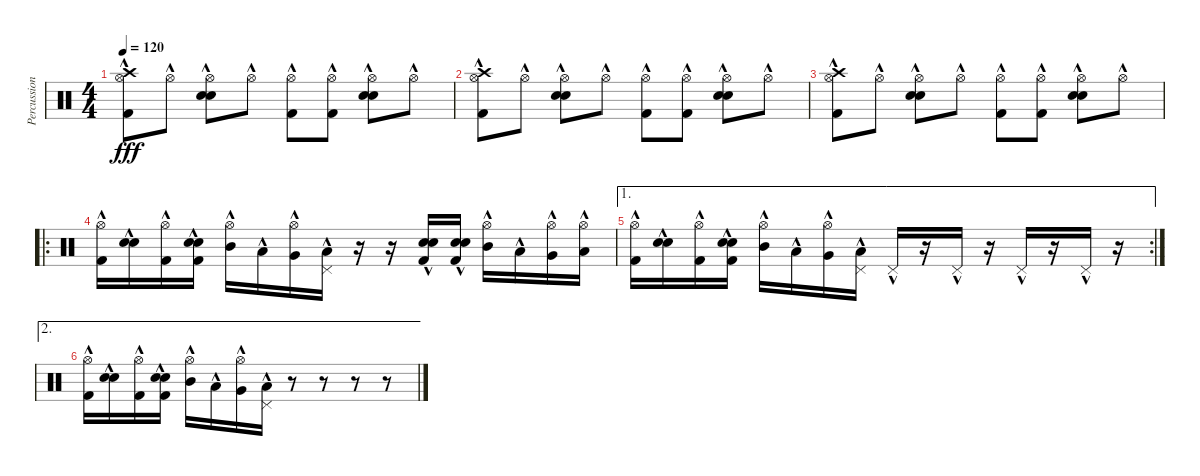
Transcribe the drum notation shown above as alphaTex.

\track ("Percussion" "Percussion") {instrument percussion}
\staff {score}
\articulation defaults
\ts (4 4)
\tempo 120
\clef neutral
\ks c
("Crash high (hit)"{hac} "Hi-Hat (open)"{hac} "Kick (hit) 2"{hac}).8{dy fff} "Hi-Hat (open)"{hac}.8 ("Electric Snare (hit)"{hac} "Snare (hit) 2"{hac} "Hi-Hat (open)"{hac}).8 "Hi-Hat (open)"{hac}.8 ("Hi-Hat (open)"{hac} "Kick (hit) 2"{hac}).8 ("Hi-Hat (open)"{hac} "Kick (hit) 2"{hac}).8 ("Electric Snare (hit)"{hac} "Snare (hit) 2"{hac} "Hi-Hat (open)"{hac}).8 "Hi-Hat (open)"{hac}.8 |
("Crash high (hit)"{hac} "Hi-Hat (open)"{hac} "Kick (hit) 2"{hac}).8 "Hi-Hat (open)"{hac}.8 ("Electric Snare (hit)"{hac} "Snare (hit) 2"{hac} "Hi-Hat (open)"{hac}).8 "Hi-Hat (open)"{hac}.8 ("Hi-Hat (open)"{hac} "Kick (hit) 2"{hac}).8 ("Hi-Hat (open)"{hac} "Kick (hit) 2"{hac}).8 ("Electric Snare (hit)"{hac} "Snare (hit) 2"{hac} "Hi-Hat (open)"{hac}).8 "Hi-Hat (open)"{hac}.8 |
("Crash high (hit)"{hac} "Hi-Hat (open)"{hac} "Kick (hit) 2"{hac}).8 "Hi-Hat (open)"{hac}.8 ("Electric Snare (hit)"{hac} "Snare (hit) 2"{hac} "Hi-Hat (open)"{hac}).8 "Hi-Hat (open)"{hac}.8 ("Hi-Hat (open)"{hac} "Kick (hit) 2"{hac}).8 ("Hi-Hat (open)"{hac} "Kick (hit) 2"{hac}).8 ("Electric Snare (hit)"{hac} "Snare (hit) 2"{hac} "Hi-Hat (open)"{hac}).8 "Hi-Hat (open)"{hac}.8 |
\ro
("Hi-Hat (open)"{hac} "Kick (hit) 2"{hac}).16 ("Electric Snare (hit)"{hac} "Snare (hit) 2"{hac}).16 ("Hi-Hat (open)"{hac} "Kick (hit) 2"{hac}).16 ("Electric Snare (hit)"{hac} "Snare (hit) 2"{hac} "Kick (hit) 2"{hac}).16 ("Mid Tom (hit)"{hac} "Hi-Hat (open)"{hac}).16 "Low Tom (hit)"{hac}.16 ("Very Low Tom (hit)"{hac} "Hi-Hat (open)"{hac}).16 ("Low Floor Tom (hit)"{hac} "Pedal Hi-Hat (hit)").16 r.16 r.16 ("Electric Snare (hit)"{hac} "Snare (hit) 2"{hac} "Kick (hit) 2"{hac}).16 ("Electric Snare (hit)"{hac} "Snare (hit) 2"{hac} "Kick (hit) 2"{hac}).16 ("Mid Tom (hit)"{hac} "Hi-Hat (open)"{hac}).16 "Low Tom (hit)"{hac}.16 ("Very Low Tom (hit)"{hac} "Hi-Hat (open)"{hac}).16 ("Low Floor Tom (hit)"{hac} "Hi-Hat (open)").16 |
\ae 1
\rc 2
("Hi-Hat (open)"{hac} "Kick (hit) 2"{hac}).16 ("Electric Snare (hit)"{hac} "Snare (hit) 2"{hac}).16 ("Hi-Hat (open)"{hac} "Kick (hit) 2"{hac}).16 ("Electric Snare (hit)"{hac} "Snare (hit) 2"{hac} "Kick (hit) 2"{hac}).16 ("Mid Tom (hit)"{hac} "Hi-Hat (open)"{hac}).16 "Low Tom (hit)"{hac}.16 ("Very Low Tom (hit)"{hac} "Hi-Hat (open)"{hac}).16 ("Low Floor Tom (hit)"{hac} "Pedal Hi-Hat (hit)").16 "Pedal Hi-Hat (hit)"{hac}.16 r.16 "Pedal Hi-Hat (hit)"{hac}.16 r.16 "Pedal Hi-Hat (hit)"{hac}.16 r.16 "Pedal Hi-Hat (hit)"{hac}.16 r.16 |
\ae 2
("Hi-Hat (open)"{hac} "Kick (hit) 2"{hac}).16 ("Electric Snare (hit)"{hac} "Snare (hit) 2"{hac}).16 ("Hi-Hat (open)"{hac} "Kick (hit) 2"{hac}).16 ("Electric Snare (hit)"{hac} "Snare (hit) 2"{hac} "Kick (hit) 2"{hac}).16 ("Mid Tom (hit)"{hac} "Hi-Hat (open)"{hac}).16 "Low Tom (hit)"{hac}.16 ("Very Low Tom (hit)"{hac} "Hi-Hat (open)"{hac}).16 ("Low Floor Tom (hit)"{hac} "Pedal Hi-Hat (hit)"{hac}).16 r.8 r.8 r.8 r.8
